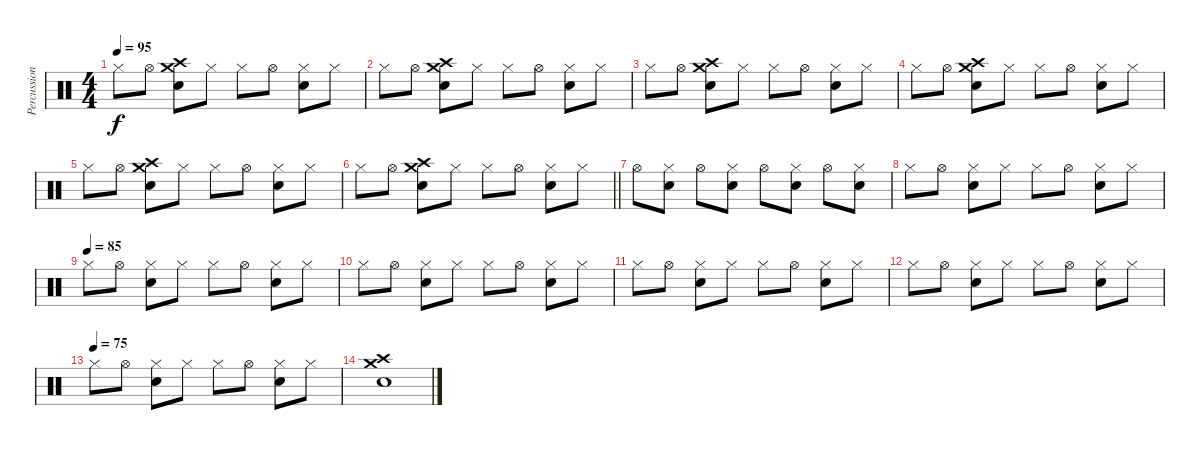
\track ("Percussion" "Percussion") {instrument percussion}
\staff {score}
\articulation defaults
\ts (4 4)
\tempo 95
\clef neutral
\ks c "Hi-Hat (closed)".8{dy f} "Hi-Hat (open)".8
("Crash medium (hit)" "Snare (hit) 2" "Crash high (hit)").8 "Hi-Hat (closed)".8 "Hi-Hat (closed)".8 "Hi-Hat (open)".8 ("Hi-Hat (closed)" "Snare (hit) 2").8 "Hi-Hat (closed)".8 |
"Hi-Hat (closed)".8 "Hi-Hat (open)".8 ("Crash medium (hit)" "Snare (hit) 2" "Crash high (hit)").8 "Hi-Hat (closed)".8 "Hi-Hat (closed)".8 "Hi-Hat (open)".8 ("Hi-Hat (closed)" "Snare (hit) 2").8 "Hi-Hat (closed)".8 |
"Hi-Hat (closed)".8 "Hi-Hat (open)".8 ("Crash medium (hit)" "Snare (hit) 2" "Crash high (hit)").8 "Hi-Hat (closed)".8 "Hi-Hat (closed)".8 "Hi-Hat (open)".8 ("Hi-Hat (closed)" "Snare (hit) 2").8 "Hi-Hat (closed)".8 |
"Hi-Hat (closed)".8 "Hi-Hat (open)".8 ("Crash medium (hit)" "Snare (hit) 2" "Crash high (hit)").8 "Hi-Hat (closed)".8 "Hi-Hat (closed)".8 "Hi-Hat (open)".8 ("Hi-Hat (closed)" "Snare (hit) 2").8 "Hi-Hat (closed)".8 |
"Hi-Hat (closed)".8 "Hi-Hat (open)".8 ("Crash medium (hit)" "Snare (hit) 2" "Crash high (hit)").8 "Hi-Hat (closed)".8 "Hi-Hat (closed)".8 "Hi-Hat (open)".8 ("Hi-Hat (closed)" "Snare (hit) 2").8 "Hi-Hat (closed)".8 |
\barLineRight lightlight "Hi-Hat (closed)".8 "Hi-Hat (open)".8
("Crash medium (hit)" "Snare (hit) 2" "Crash high (hit)").8 "Hi-Hat (closed)".8 "Hi-Hat (closed)".8 "Hi-Hat (open)".8 ("Hi-Hat (closed)" "Snare (hit) 2").8 "Hi-Hat (closed)".8 |
"Hi-Hat (open)".8 ("Hi-Hat (closed)" "Snare (hit) 2").8 "Hi-Hat (open)".8 ("Hi-Hat (closed)" "Snare (hit) 2").8 "Hi-Hat (open)".8 ("Hi-Hat (closed)" "Snare (hit) 2").8 "Hi-Hat (open)".8 ("Hi-Hat (closed)" "Snare (hit) 2").8 |
"Hi-Hat (closed)".8 "Hi-Hat (open)".8 ("Hi-Hat (closed)" "Snare (hit) 2").8 "Hi-Hat (closed)".8 "Hi-Hat (closed)".8 "Hi-Hat (open)".8 ("Hi-Hat (closed)" "Snare (hit) 2").8 "Hi-Hat (closed)".8 |
\tempo (85)
"Hi-Hat (closed)".8 "Hi-Hat (open)".8 ("Hi-Hat (closed)" "Snare (hit) 2").8 "Hi-Hat (closed)".8 "Hi-Hat (closed)".8 "Hi-Hat (open)".8 ("Hi-Hat (closed)" "Snare (hit) 2").8 "Hi-Hat (closed)".8 |
"Hi-Hat (closed)".8 "Hi-Hat (open)".8 ("Hi-Hat (closed)" "Snare (hit) 2").8 "Hi-Hat (closed)".8 "Hi-Hat (closed)".8 "Hi-Hat (open)".8 ("Hi-Hat (closed)" "Snare (hit) 2").8 "Hi-Hat (closed)".8 |
"Hi-Hat (closed)".8 "Hi-Hat (open)".8 ("Hi-Hat (closed)" "Snare (hit) 2").8 "Hi-Hat (closed)".8 "Hi-Hat (closed)".8 "Hi-Hat (open)".8 ("Hi-Hat (closed)" "Snare (hit) 2").8 "Hi-Hat (closed)".8 |
"Hi-Hat (closed)".8 "Hi-Hat (open)".8 ("Hi-Hat (closed)" "Snare (hit) 2").8 "Hi-Hat (closed)".8 "Hi-Hat (closed)".8 "Hi-Hat (open)".8 ("Hi-Hat (closed)" "Snare (hit) 2").8 "Hi-Hat (closed)".8 |
\tempo (75)
"Hi-Hat (closed)".8 "Hi-Hat (open)".8 ("Hi-Hat (closed)" "Snare (hit) 2").8 "Hi-Hat (closed)".8 "Hi-Hat (closed)".8 "Hi-Hat (open)".8 ("Hi-Hat (closed)" "Snare (hit) 2").8 "Hi-Hat (closed)".8 |
("Crash medium (hit)" "Snare (hit) 2" "Crash high (hit)").1
